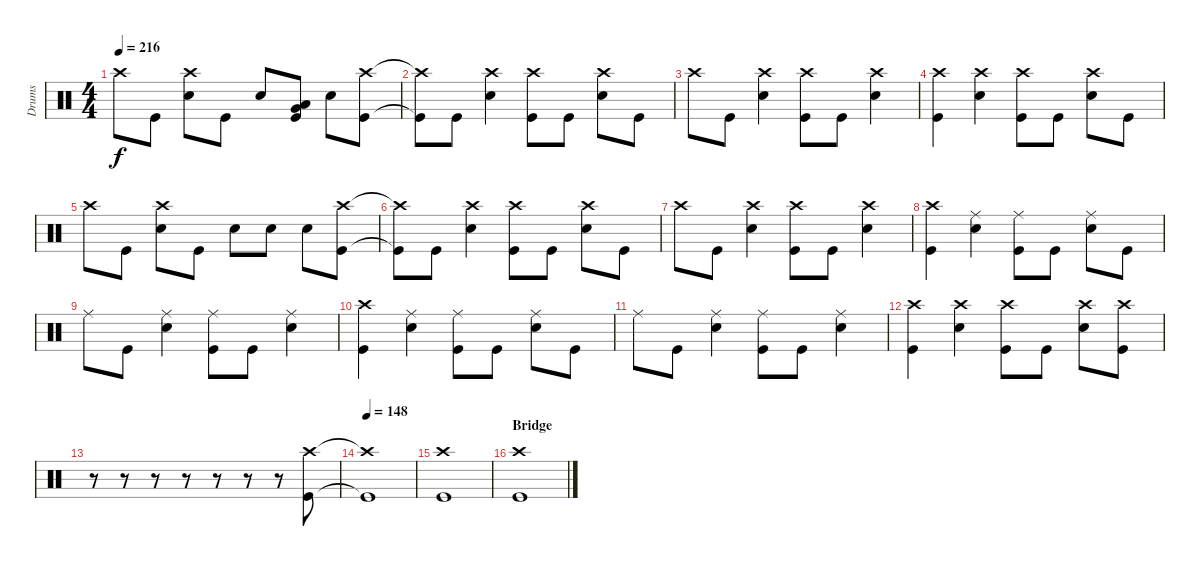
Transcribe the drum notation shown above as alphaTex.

\track ("Drums" "Drums") {instrument percussion}
\staff {score}
\articulation defaults
\ts (4 4)
\tempo 216
\clef neutral
\ks c "Crash high (hit)".8{dy f} "Kick (hit)".8
("Crash high (hit)" "Snare (hit) 2").8 "Kick (hit)".8 "Snare (hit) 2".8 ("Very Low Tom (hit)" "Low Floor Tom (hit)" "Kick (hit)").8 "Snare (hit) 2".8 ("Crash high (hit)" "Kick (hit)").8 |
("Crash high (hit)"{t} "Kick (hit)"{t}).8 "Kick (hit)".8 ("Crash high (hit)" "Snare (hit) 2").4 ("Crash high (hit)" "Kick (hit)").8 "Kick (hit)".8 ("Crash high (hit)" "Snare (hit) 2").8 "Kick (hit)".8 |
"Crash high (hit)".8 "Kick (hit)".8 ("Crash high (hit)" "Snare (hit) 2").4 ("Crash high (hit)" "Kick (hit)").8 "Kick (hit)".8 ("Crash high (hit)" "Snare (hit) 2").4 |
("Crash high (hit)" "Kick (hit)").4 ("Crash high (hit)" "Snare (hit) 2").4 ("Crash high (hit)" "Kick (hit)").8 "Kick (hit)".8 ("Crash high (hit)" "Snare (hit) 2").8 "Kick (hit)".8 |
"Crash high (hit)".8 "Kick (hit)".8 ("Crash high (hit)" "Snare (hit) 2").8 "Kick (hit)".8 "Snare (hit) 2".8 "Snare (hit) 2".8 "Snare (hit) 2".8 ("Crash high (hit)" "Kick (hit)").8 |
("Crash high (hit)"{t} "Kick (hit)"{t}).8 "Kick (hit)".8 ("Crash high (hit)" "Snare (hit) 2").4 ("Crash high (hit)" "Kick (hit)").8 "Kick (hit)".8 ("Crash high (hit)" "Snare (hit) 2").8 "Kick (hit)".8 |
"Crash high (hit)".8 "Kick (hit)".8 ("Crash high (hit)" "Snare (hit) 2").4 ("Crash high (hit)" "Kick (hit)").8 "Kick (hit)".8 ("Crash high (hit)" "Snare (hit) 2").4 |
("Crash high (hit)" "Kick (hit)").4 ("Ride (middle)" "Snare (hit) 2").4 ("Ride (middle)" "Kick (hit)").8 "Kick (hit)".8 ("Ride (middle)" "Snare (hit) 2").8 "Kick (hit)".8 |
"Ride (middle)".8 "Kick (hit)".8 ("Ride (middle)" "Snare (hit) 2").4 ("Ride (middle)" "Kick (hit)").8 "Kick (hit)".8 ("Ride (middle)" "Snare (hit) 2").4 |
("Crash high (hit)" "Kick (hit)").4 ("Ride (middle)" "Snare (hit) 2").4 ("Ride (middle)" "Kick (hit)").8 "Kick (hit)".8 ("Ride (middle)" "Snare (hit) 2").8 "Kick (hit)".8 |
"Ride (middle)".8 "Kick (hit)".8 ("Ride (middle)" "Snare (hit) 2").4 ("Ride (middle)" "Kick (hit)").8 "Kick (hit)".8 ("Ride (middle)" "Snare (hit) 2").4 |
("Crash high (hit)" "Kick (hit)").4 ("Crash high (hit)" "Snare (hit) 2").4 ("Crash high (hit)" "Kick (hit)").8 "Kick (hit)".8 ("Crash high (hit)" "Snare (hit) 2").8 ("Crash high (hit)" "Kick (hit)").8 |
r.8 r.8 r.8 r.8 r.8 r.8 r.8 ("Crash high (hit)" "Kick (hit)").8 |
\tempo 148
("Crash high (hit)"{t} "Kick (hit)"{t}).1 |
("Crash high (hit)" "Kick (hit)").1 |
\section ("" "Bridge")
("Crash high (hit)" "Kick (hit)").1
